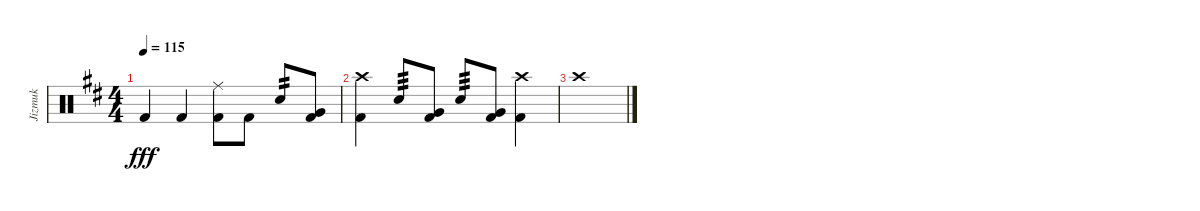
\track ("Jizmuk" "Jizmuk") {instrument percussion}
\staff {score}
\articulation defaults
\ts (4 4)
\tempo 115
\clef neutral
\ks d "Kick (hit) 2".4{dy fff} "Kick (hit) 2".4
("Ride (middle)" "Kick (hit) 2").8 "Kick (hit) 2".8 "Snare (hit) 2".8{tp 2} ("Very Low Tom (hit)" "Kick (hit) 2").8 |
("Crash high (hit)" "Kick (hit) 2").4{volume 16} "Snare (hit) 2".8{tp 3} ("Very Low Tom (hit)" "Kick (hit) 2").8 "Snare (hit) 2".8{tp 3} ("Very Low Tom (hit)" "Kick (hit) 2").8 ("Crash high (hit)" "Kick (hit) 2").4 |
"Crash high (hit)".1
